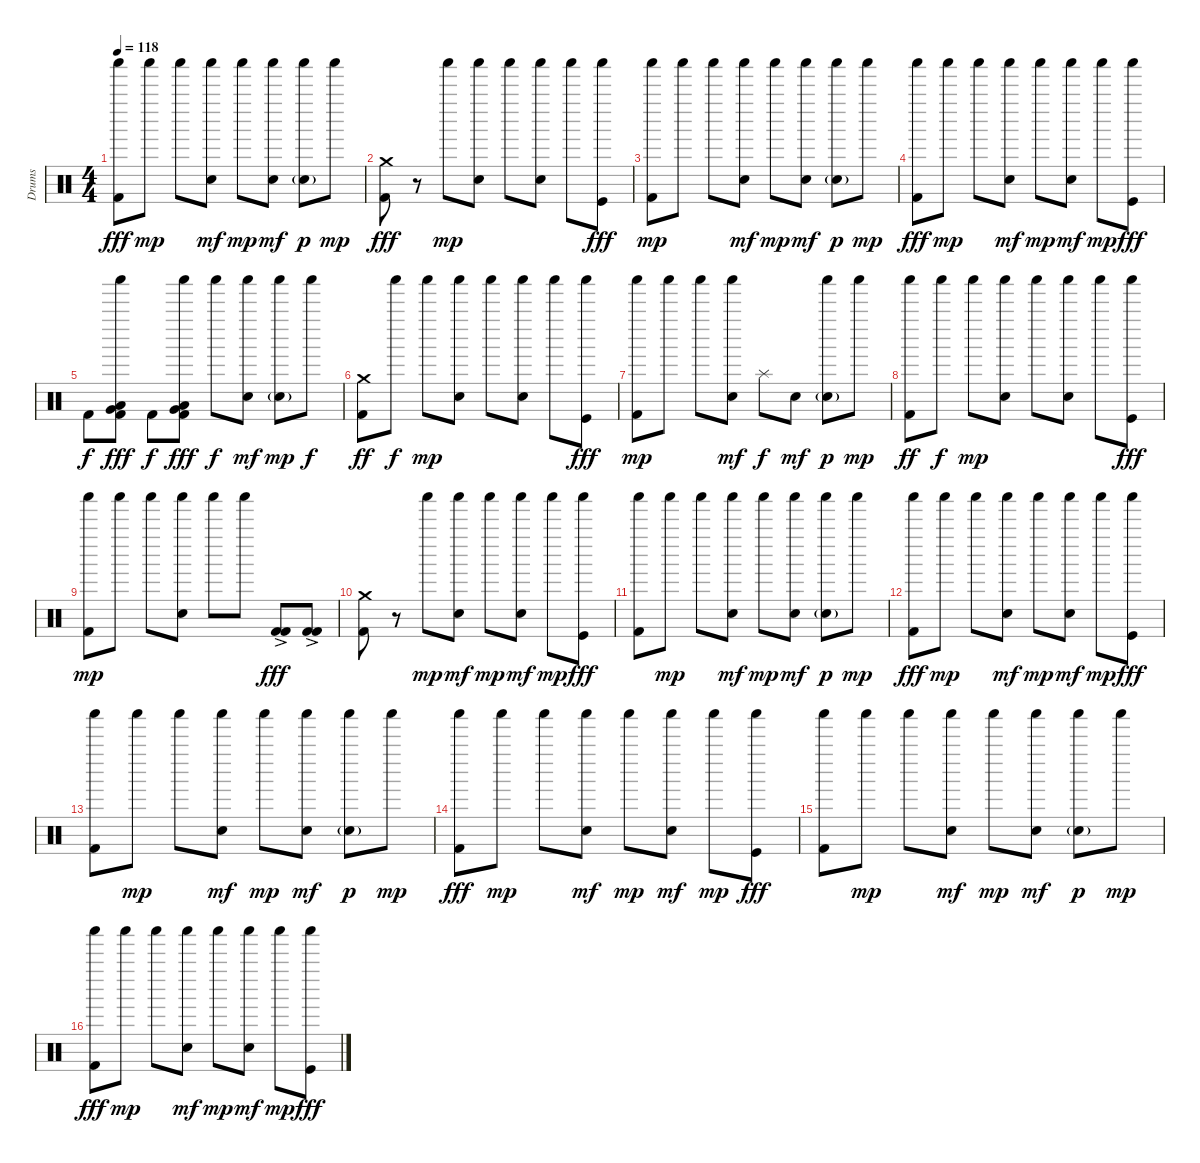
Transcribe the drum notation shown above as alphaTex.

\track ("Drums" "Drums") {instrument percussion}
\staff {score}
\articulation defaults
\ts (4 4)
\tempo 118
\clef neutral
\ks c
("Shaker (hit)" "Kick (hit) 2").8{dy fff} "Shaker (hit)".8{dy mp} "Shaker (hit)".8 ("Shaker (hit)" "Electric Snare (hit)").8{dy mf} "Shaker (hit)".8{dy mp} ("Shaker (hit)" "Snare (hit) 2").8{dy mf} ("Shaker (hit)" "Electric Snare (hit)"{g}).8{dy p} "Shaker (hit)".8{dy mp} |
("Crash medium (hit)" "Kick (hit) 2").8{dy fff} r.8 "Shaker (hit)".8{dy mp} ("Shaker (hit)" "Electric Snare (hit)").8 "Shaker (hit)".8 ("Shaker (hit)" "Electric Snare (hit)").8 "Shaker (hit)".8 ("Shaker (hit)" "Kick (hit)").8{dy fff} |
("Shaker (hit)" "Kick (hit) 2").8{dy mp} "Shaker (hit)".8 "Shaker (hit)".8 ("Shaker (hit)" "Electric Snare (hit)").8{dy mf} "Shaker (hit)".8{dy mp} ("Shaker (hit)" "Electric Snare (hit)").8{dy mf} ("Shaker (hit)" "Electric Snare (hit)"{g}).8{dy p} "Shaker (hit)".8{dy mp} |
("Shaker (hit)" "Kick (hit) 2").8{dy fff} "Shaker (hit)".8{dy mp} "Shaker (hit)".8 ("Shaker (hit)" "Electric Snare (hit)").8{dy mf} "Shaker (hit)".8{dy mp} ("Shaker (hit)" "Electric Snare (hit)").8{dy mf} "Shaker (hit)".8{dy mp} ("Shaker (hit)" "Kick (hit)").8{dy fff} |
"Kick (hit) 2".8{dy f} ("Shaker (hit)" "Very Low Tom (hit)" "Low Floor Tom (hit)" "Kick (hit) 2").8{dy fff} "Kick (hit) 2".8{dy f} ("Shaker (hit)" "Very Low Tom (hit)" "Low Floor Tom (hit)" "Kick (hit) 2").8{dy fff} "Shaker (hit)".8{dy f} ("Shaker (hit)" "Electric Snare (hit)").8{dy mf} ("Shaker (hit)" "Electric Snare (hit)"{g}).8{dy mp} "Shaker (hit)".8{dy f} |
("Crash medium (hit)" "Kick (hit) 2").8{dy ff} "Shaker (hit)".8{dy f} "Shaker (hit)".8{dy mp} ("Shaker (hit)" "Electric Snare (hit)").8 "Shaker (hit)".8 ("Shaker (hit)" "Electric Snare (hit)").8 "Shaker (hit)".8 ("Shaker (hit)" "Kick (hit)").8{dy fff} |
("Shaker (hit)" "Kick (hit) 2").8{dy mp} "Shaker (hit)".8 "Shaker (hit)".8 ("Shaker (hit)" "Electric Snare (hit)").8{dy mf} "Splash (hit)".8{dy f} "Electric Snare (hit)".8{dy mf} ("Shaker (hit)" "Electric Snare (hit)"{g}).8{dy p} "Shaker (hit)".8{dy mp} |
("Shaker (hit)" "Kick (hit) 2").8{dy ff} "Shaker (hit)".8{dy f} "Shaker (hit)".8{dy mp} ("Shaker (hit)" "Electric Snare (hit)").8 "Shaker (hit)".8 ("Shaker (hit)" "Electric Snare (hit)").8 "Shaker (hit)".8 ("Shaker (hit)" "Kick (hit)").8{dy fff} |
("Shaker (hit)" "Kick (hit) 2").8{dy mp} "Shaker (hit)".8 "Shaker (hit)".8 ("Shaker (hit)" "Electric Snare (hit)").8 "Shaker (hit)".8 "Shaker (hit)".8 ("Kick (hit) 2"{ac} "Kick (hit) 2"{ac}).8{dy fff} ("Kick (hit) 2"{ac} "Kick (hit) 2"{ac}).8 |
("Crash medium (hit)" "Kick (hit) 2").8 r.8 "Shaker (hit)".8{dy mp} ("Shaker (hit)" "Electric Snare (hit)").8{dy mf} "Shaker (hit)".8{dy mp} ("Shaker (hit)" "Snare (hit) 2").8{dy mf} "Shaker (hit)".8{dy mp} ("Shaker (hit)" "Kick (hit)").8{dy fff} |
("Shaker (hit)" "Kick (hit) 2").8 "Shaker (hit)".8{dy mp} "Shaker (hit)".8 ("Shaker (hit)" "Electric Snare (hit)").8{dy mf} "Shaker (hit)".8{dy mp} ("Shaker (hit)" "Snare (hit) 2").8{dy mf} ("Shaker (hit)" "Electric Snare (hit)"{g}).8{dy p} "Shaker (hit)".8{dy mp} |
("Shaker (hit)" "Kick (hit) 2").8{dy fff} "Shaker (hit)".8{dy mp} "Shaker (hit)".8 ("Shaker (hit)" "Electric Snare (hit)").8{dy mf} "Shaker (hit)".8{dy mp} ("Shaker (hit)" "Snare (hit) 2").8{dy mf} "Shaker (hit)".8{dy mp} ("Shaker (hit)" "Kick (hit)").8{dy fff} |
("Shaker (hit)" "Kick (hit) 2").8 "Shaker (hit)".8{dy mp} "Shaker (hit)".8 ("Shaker (hit)" "Electric Snare (hit)").8{dy mf} "Shaker (hit)".8{dy mp} ("Shaker (hit)" "Snare (hit) 2").8{dy mf} ("Shaker (hit)" "Electric Snare (hit)"{g}).8{dy p} "Shaker (hit)".8{dy mp} |
("Shaker (hit)" "Kick (hit) 2").8{dy fff} "Shaker (hit)".8{dy mp} "Shaker (hit)".8 ("Shaker (hit)" "Electric Snare (hit)").8{dy mf} "Shaker (hit)".8{dy mp} ("Shaker (hit)" "Snare (hit) 2").8{dy mf} "Shaker (hit)".8{dy mp} ("Shaker (hit)" "Kick (hit)").8{dy fff} |
("Shaker (hit)" "Kick (hit) 2").8 "Shaker (hit)".8{dy mp} "Shaker (hit)".8 ("Shaker (hit)" "Electric Snare (hit)").8{dy mf} "Shaker (hit)".8{dy mp} ("Shaker (hit)" "Snare (hit) 2").8{dy mf} ("Shaker (hit)" "Electric Snare (hit)"{g}).8{dy p} "Shaker (hit)".8{dy mp} |
("Shaker (hit)" "Kick (hit) 2").8{dy fff} "Shaker (hit)".8{dy mp} "Shaker (hit)".8 ("Shaker (hit)" "Electric Snare (hit)").8{dy mf} "Shaker (hit)".8{dy mp} ("Shaker (hit)" "Snare (hit) 2").8{dy mf} "Shaker (hit)".8{dy mp} ("Shaker (hit)" "Kick (hit)").8{dy fff}
